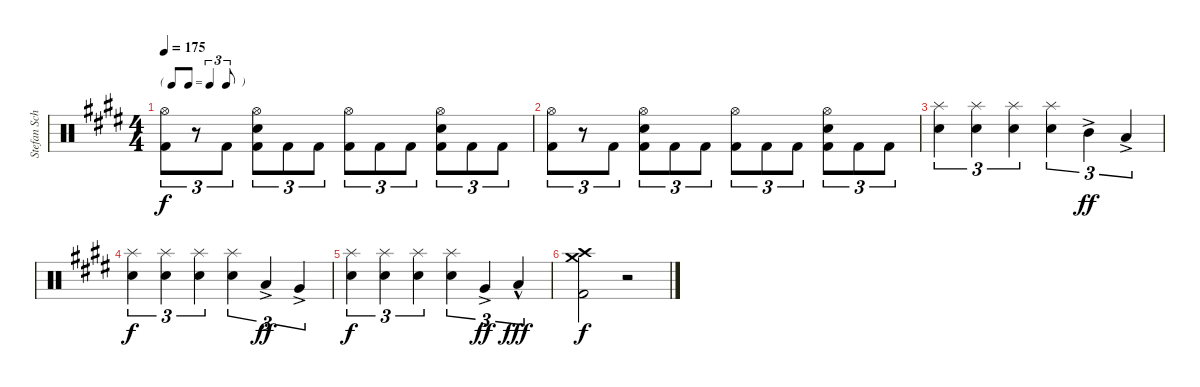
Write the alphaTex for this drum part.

\track ("Stefan Schwarzmann" "Stefan Sch") {instrument percussion}
\staff {score}
\articulation defaults
\ts (4 4)
\tf triplet8th
\tempo 175
\clef neutral
\ks c#minor
("Hi-Hat (open)" "Kick (hit) 2").8{tu (3 2) dy f} r.8{tu (3 2)} "Kick (hit) 2".8{tu (3 2)} ("Hi-Hat (open)" "Snare (hit) 2" "Kick (hit) 2").8{tu (3 2)} "Kick (hit) 2".8{tu (3 2)} "Kick (hit) 2".8{tu (3 2)} ("Hi-Hat (open)" "Kick (hit) 2").8{tu (3 2)} "Kick (hit) 2".8{tu (3 2)} "Kick (hit) 2".8{tu (3 2)} ("Hi-Hat (open)" "Snare (hit) 2" "Kick (hit) 2").8{tu (3 2)} "Kick (hit) 2".8{tu (3 2)} "Kick (hit) 2".8{tu (3 2)} |
("Hi-Hat (open)" "Kick (hit) 2").8{tu (3 2)} r.8{tu (3 2)} "Kick (hit) 2".8{tu (3 2)} ("Hi-Hat (open)" "Snare (hit) 2" "Kick (hit) 2").8{tu (3 2)} "Kick (hit) 2".8{tu (3 2)} "Kick (hit) 2".8{tu (3 2)} ("Hi-Hat (open)" "Kick (hit) 2").8{tu (3 2)} "Kick (hit) 2".8{tu (3 2)} "Kick (hit) 2".8{tu (3 2)} ("Hi-Hat (open)" "Snare (hit) 2" "Kick (hit) 2").8{tu (3 2)} "Kick (hit) 2".8{tu (3 2)} "Kick (hit) 2".8{tu (3 2)} |
("Splash (hit)" "Snare (hit) 2").4{tu (3 2)} ("Splash (hit)" "Snare (hit) 2").4{tu (3 2)} ("Splash (hit)" "Snare (hit) 2").4{tu (3 2)} ("Splash (hit)" "Snare (hit) 2").4{tu (3 2)} "Mid Tom (hit)"{ac}.4{tu (3 2) dy ff} "Low Tom (hit)"{ac}.4{tu (3 2)} |
("Splash (hit)" "Snare (hit) 2").4{tu (3 2) dy f} ("Splash (hit)" "Snare (hit) 2").4{tu (3 2)} ("Splash (hit)" "Snare (hit) 2").4{tu (3 2)} ("Splash (hit)" "Snare (hit) 2").4{tu (3 2)} "Low Tom (hit)"{ac}.4{tu (3 2) dy ff} "Very Low Tom (hit)"{ac}.4{tu (3 2)} |
("Splash (hit)" "Snare (hit) 2").4{tu (3 2) dy f} ("Splash (hit)" "Snare (hit) 2").4{tu (3 2)} ("Splash (hit)" "Snare (hit) 2").4{tu (3 2)} ("Splash (hit)" "Snare (hit) 2").4{tu (3 2)} "Very Low Tom (hit)"{ac}.4{tu (3 2) dy ff} "Low Floor Tom (hit)"{hac}.4{tu (3 2) dy fff} |
("Crash medium (hit)" "Crash high (hit)" "Kick (hit) 2").2{dy f} r.2
